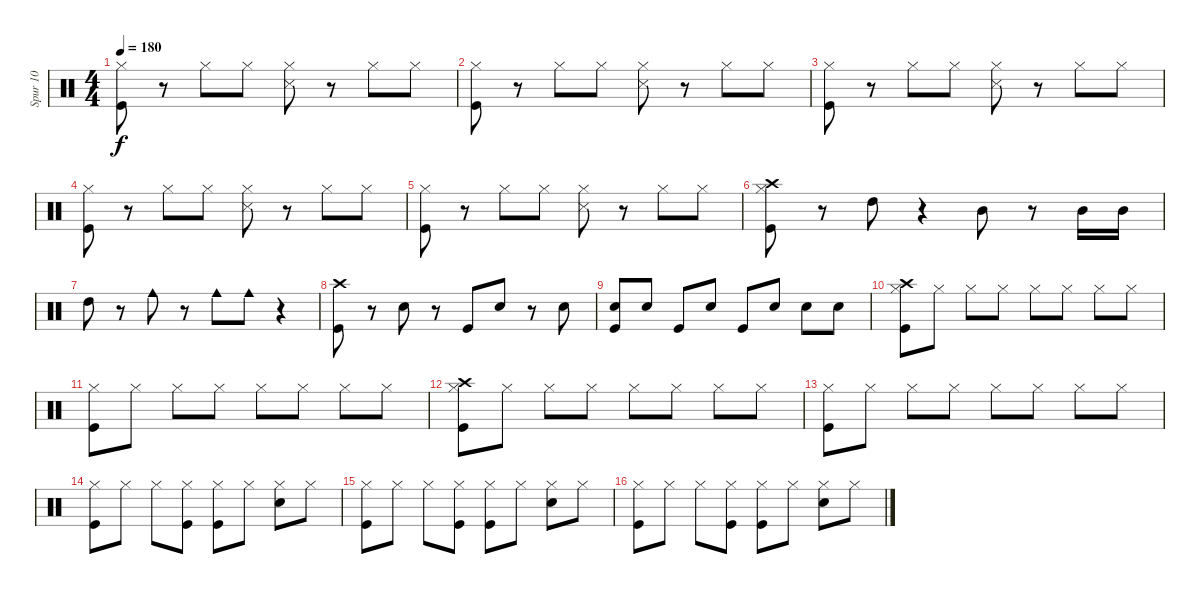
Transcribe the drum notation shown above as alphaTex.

\track ("Spur 10" "Spur 10") {instrument percussion}
\staff {score}
\articulation defaults
\ts (4 4)
\tempo 180
\clef neutral
\ks c
("Hi-Hat (closed)" "Kick (hit)").8{dy f} r.8 "Hi-Hat (closed)".8 "Hi-Hat (closed)".8 ("Hi-Hat (closed)" "Snare (side stick) 3").8 r.8 "Hi-Hat (closed)".8 "Hi-Hat (closed)".8 |
("Hi-Hat (closed)" "Kick (hit)").8 r.8 "Hi-Hat (closed)".8 "Hi-Hat (closed)".8 ("Hi-Hat (closed)" "Snare (side stick) 3").8 r.8 "Hi-Hat (closed)".8 "Hi-Hat (closed)".8 |
("Hi-Hat (closed)" "Kick (hit)").8 r.8 "Hi-Hat (closed)".8 "Hi-Hat (closed)".8 ("Hi-Hat (closed)" "Snare (side stick) 3").8 r.8 "Hi-Hat (closed)".8 "Hi-Hat (closed)".8 |
("Hi-Hat (closed)" "Kick (hit)").8 r.8 "Hi-Hat (closed)".8 "Hi-Hat (closed)".8 ("Hi-Hat (closed)" "Snare (side stick) 3").8 r.8 "Hi-Hat (closed)".8 "Hi-Hat (closed)".8 |
("Hi-Hat (closed)" "Kick (hit)").8 r.8 "Hi-Hat (closed)".8 "Hi-Hat (closed)".8 ("Hi-Hat (closed)" "Snare (side stick) 3").8 r.8 "Hi-Hat (closed)".8 "Hi-Hat (closed)".8 |
("Crash high (hit)" "Hi-Hat (closed)" "Kick (hit)").8 r.8 "High Tom (hit)".8 r.4 "Mid Tom (hit)".8 r.8 "Mid Tom (hit)".16 "Mid Tom (hit)".16 |
"High Tom (hit)".8 r.8 "Cowbell medium (hit)".8 r.8 "Cowbell medium (hit)".8 "Cowbell medium (hit)".8 r.4 |
("Kick (hit)" "Crash high (hit)").8 r.8 "Electric Snare (hit)".8 r.8 "Kick (hit)".8 "Electric Snare (hit)".8 r.8 "Electric Snare (hit)".8 |
("Electric Snare (hit)" "Kick (hit)").8 "Electric Snare (hit)".8 "Kick (hit)".8 "Electric Snare (hit)".8 "Kick (hit)".8 "Electric Snare (hit)".8 "Electric Snare (hit)".8 "Electric Snare (hit)".8 |
("Hi-Hat (closed)" "Kick (hit)" "Crash high (hit)").8 "Hi-Hat (closed)".8 "Hi-Hat (closed)".8 "Hi-Hat (closed)".8 "Hi-Hat (closed)".8 "Hi-Hat (closed)".8 "Hi-Hat (closed)".8 "Hi-Hat (closed)".8 |
("Hi-Hat (closed)" "Kick (hit)").8 "Hi-Hat (closed)".8 "Hi-Hat (closed)".8 "Hi-Hat (closed)".8 "Hi-Hat (closed)".8 "Hi-Hat (closed)".8 "Hi-Hat (closed)".8 "Hi-Hat (closed)".8 |
("Kick (hit)" "Hi-Hat (closed)" "Crash high (hit)").8 "Hi-Hat (closed)".8 "Hi-Hat (closed)".8 "Hi-Hat (closed)".8 "Hi-Hat (closed)".8 "Hi-Hat (closed)".8 "Hi-Hat (closed)".8 "Hi-Hat (closed)".8 |
("Hi-Hat (closed)" "Kick (hit)").8 "Hi-Hat (closed)".8 "Hi-Hat (closed)".8 "Hi-Hat (closed)".8 "Hi-Hat (closed)".8 "Hi-Hat (closed)".8 "Hi-Hat (closed)".8 "Hi-Hat (closed)".8 |
("Hi-Hat (closed)" "Kick (hit)").8 "Hi-Hat (closed)".8 "Hi-Hat (closed)".8 ("Hi-Hat (closed)" "Kick (hit)").8 ("Hi-Hat (closed)" "Kick (hit)").8 "Hi-Hat (closed)".8 ("Hi-Hat (closed)" "Electric Snare (hit)").8 "Hi-Hat (closed)".8 |
("Hi-Hat (closed)" "Kick (hit)").8 "Hi-Hat (closed)".8 "Hi-Hat (closed)".8 ("Hi-Hat (closed)" "Kick (hit)").8 ("Hi-Hat (closed)" "Kick (hit)").8 "Hi-Hat (closed)".8 ("Hi-Hat (closed)" "Electric Snare (hit)").8 "Hi-Hat (closed)".8 |
("Hi-Hat (closed)" "Kick (hit)").8 "Hi-Hat (closed)".8 "Hi-Hat (closed)".8 ("Hi-Hat (closed)" "Kick (hit)").8 ("Hi-Hat (closed)" "Kick (hit)").8 "Hi-Hat (closed)".8 ("Hi-Hat (closed)" "Electric Snare (hit)").8 "Hi-Hat (closed)".8
